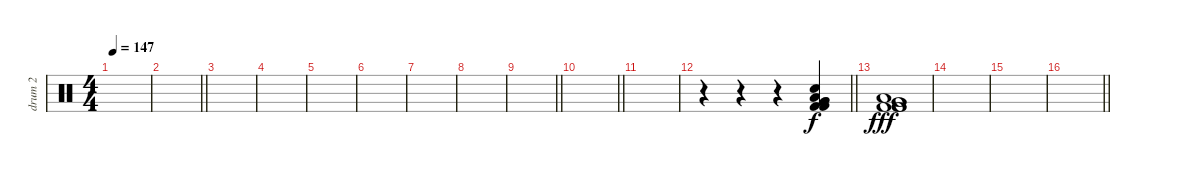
\track ("drum 2" "drum 2") {instrument percussion}
\staff {score}
\articulation defaults
\ts (4 4)
\tempo 147
\clef neutral
\ks c
|
\barLineRight lightlight
|
\section ("" "")
|
|
|
|
|
|
\barLineRight lightlight
|
\barLineRight lightlight
|
\section ("" "")
|
\barLineRight lightlight
r.4 r.4 r.4 ("Electric Snare (hit)" "Very Low Tom (hit)" "Very Low Tom (hit)" "Low Floor Tom (hit)" "Kick (hit) 2" "Kick (hit) 2").4{dy f} |
\section ("" "")
("Low Floor Tom (hit)" "Very Low Tom (hit)" "Very Low Tom (hit)" "Kick (hit) 2" "Kick (hit) 2" "Kick (hit) 2").1{dy fff} |
|
|
\barLineRight lightlight
